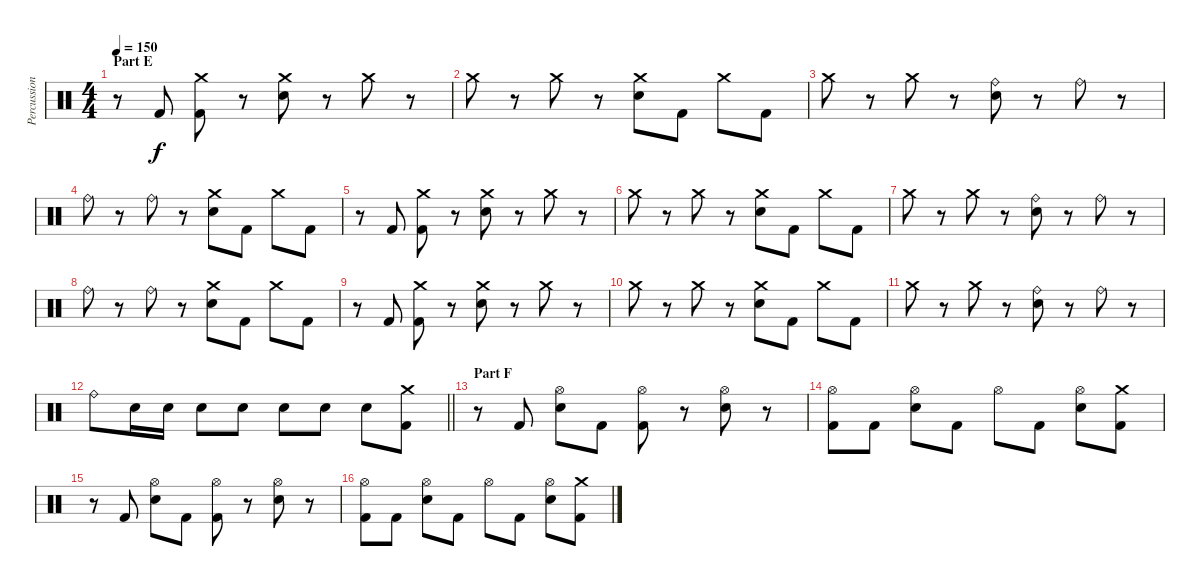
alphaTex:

\track ("Percussion" "Percussion") {instrument percussion}
\staff {score}
\articulation defaults
\ts (4 4)
\section ("" "Part E")
\tempo 150
\clef neutral
\ks c
r.8{dy f} "Kick (hit) 2".8 ("Crash medium (hit)" "Kick (hit) 2").8 r.8 ("Crash medium (hit)" "Electric Snare (hit)").8 r.8 "Crash medium (hit)".8 r.8 |
"Crash medium (hit)".8 r.8 "Crash medium (hit)".8 r.8 ("Crash medium (hit)" "Electric Snare (hit)").8 "Kick (hit) 2".8 "Crash medium (hit)".8 "Kick (hit) 2".8 |
"Crash medium (hit)".8 r.8 "Crash medium (hit)".8 r.8 ("Ride (bell)" "Electric Snare (hit)").8 r.8 "Ride (bell)".8 r.8 |
"Ride (bell)".8 r.8 "Ride (bell)".8 r.8 ("Crash medium (hit)" "Electric Snare (hit)").8 "Kick (hit) 2".8 "Crash medium (hit)".8 "Kick (hit) 2".8 |
r.8 "Kick (hit) 2".8 ("Crash medium (hit)" "Kick (hit) 2").8 r.8 ("Crash medium (hit)" "Electric Snare (hit)").8 r.8 "Crash medium (hit)".8 r.8 |
"Crash medium (hit)".8 r.8 "Crash medium (hit)".8 r.8 ("Crash medium (hit)" "Electric Snare (hit)").8 "Kick (hit) 2".8 "Crash medium (hit)".8 "Kick (hit) 2".8 |
"Crash medium (hit)".8 r.8 "Crash medium (hit)".8 r.8 ("Ride (bell)" "Electric Snare (hit)").8 r.8 "Ride (bell)".8 r.8 |
"Ride (bell)".8 r.8 "Ride (bell)".8 r.8 ("Crash medium (hit)" "Electric Snare (hit)").8 "Kick (hit) 2".8 "Crash medium (hit)".8 "Kick (hit) 2".8 |
r.8 "Kick (hit) 2".8 ("Crash medium (hit)" "Kick (hit) 2").8 r.8 ("Crash medium (hit)" "Electric Snare (hit)").8 r.8 "Crash medium (hit)".8 r.8 |
"Crash medium (hit)".8 r.8 "Crash medium (hit)".8 r.8 ("Crash medium (hit)" "Electric Snare (hit)").8 "Kick (hit) 2".8 "Crash medium (hit)".8 "Kick (hit) 2".8 |
"Crash medium (hit)".8 r.8 "Crash medium (hit)".8 r.8 ("Ride (bell)" "Electric Snare (hit)").8 r.8 "Ride (bell)".8 r.8 |
\barLineRight lightlight "Ride (bell)".8 "Electric Snare (hit)".16 "Electric Snare (hit)".16 "Electric Snare (hit)".8 "Electric Snare (hit)".8 "Electric Snare (hit)".8 "Electric Snare (hit)".8 "Electric Snare (hit)".8
("Crash medium (hit)" "Kick (hit) 2").8 |
\section ("" "Part F")
r.8 "Kick (hit) 2".8 ("Hi-Hat (open)" "Electric Snare (hit)").8 "Kick (hit) 2".8 ("Hi-Hat (open)" "Kick (hit) 2").8 r.8 ("Hi-Hat (open)" "Electric Snare (hit)").8 r.8 |
("Hi-Hat (open)" "Kick (hit) 2").8 "Kick (hit) 2".8 ("Hi-Hat (open)" "Electric Snare (hit)").8 "Kick (hit) 2".8 "Hi-Hat (open)".8 "Kick (hit) 2".8 ("Hi-Hat (open)" "Electric Snare (hit)").8 ("Crash medium (hit)" "Kick (hit) 2").8 |
r.8 "Kick (hit) 2".8 ("Hi-Hat (open)" "Electric Snare (hit)").8 "Kick (hit) 2".8 ("Hi-Hat (open)" "Kick (hit) 2").8 r.8 ("Hi-Hat (open)" "Electric Snare (hit)").8 r.8 |
("Hi-Hat (open)" "Kick (hit) 2").8 "Kick (hit) 2".8 ("Hi-Hat (open)" "Electric Snare (hit)").8 "Kick (hit) 2".8 "Hi-Hat (open)".8 "Kick (hit) 2".8 ("Hi-Hat (open)" "Electric Snare (hit)").8 ("Crash medium (hit)" "Kick (hit) 2").8
